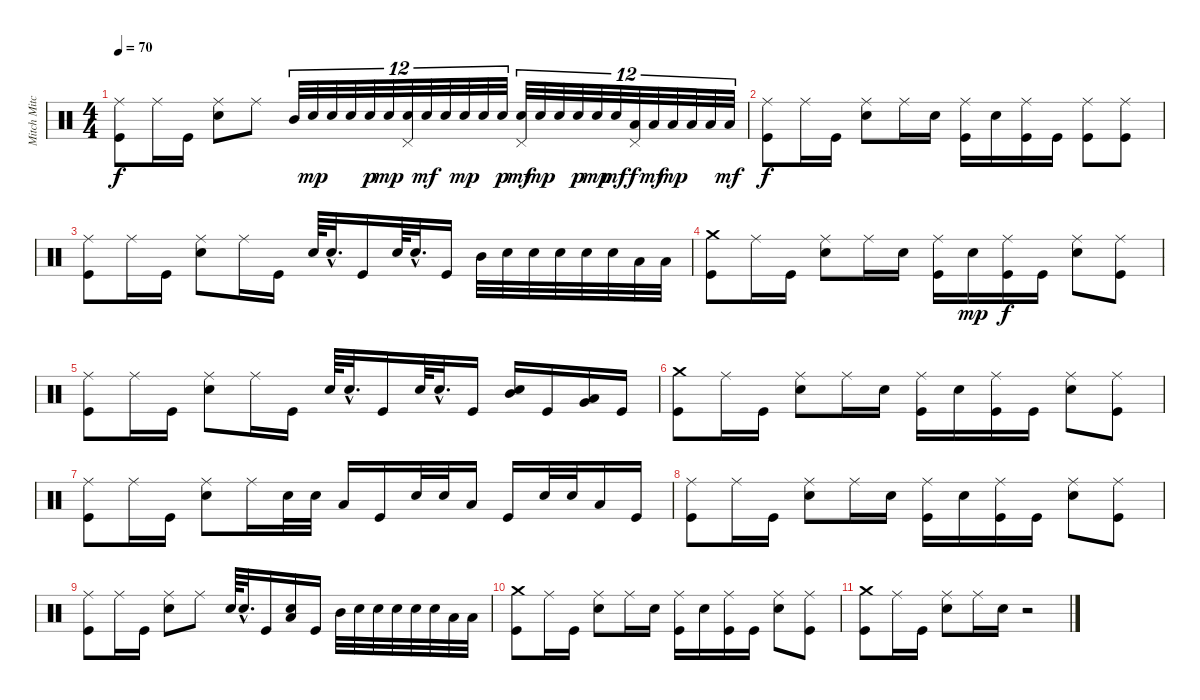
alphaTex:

\track ("Mitch Mitchell" "Mitch Mitc") {instrument percussion}
\staff {score}
\articulation defaults
\ts (4 4)
\tempo 70
\clef neutral
\ks c
("Ride (middle)" "Kick (hit)").8{dy f} "Ride (middle)".16 "Kick (hit)".16 ("Ride (middle)" "Electric Snare (hit)").8 "Ride (middle)".8 "Mid Tom (hit)".32{tu (12 8)} "Electric Snare (hit)".32{tu (12 8) dy mp} "Electric Snare (hit)".32{tu (12 8)} "Electric Snare (hit)".32{tu (12 8)} "Electric Snare (hit)".32{tu (12 8) dy p} "Electric Snare (hit)".32{tu (12 8) dy mp} ("Pedal Hi-Hat (hit)" "Electric Snare (hit)").32{tu (12 8)} "Electric Snare (hit)".32{tu (12 8) dy mf} "Electric Snare (hit)".32{tu (12 8)} "Electric Snare (hit)".32{tu (12 8) dy mp} "Electric Snare (hit)".32{tu (12 8)} "Electric Snare (hit)".32{tu (12 8) dy p} ("Pedal Hi-Hat (hit)" "Electric Snare (hit)").32{tu (12 8) dy mf} "Electric Snare (hit)".32{tu (12 8) dy mp} "Electric Snare (hit)".32{tu (12 8)} "Electric Snare (hit)".32{tu (12 8) dy p} "Electric Snare (hit)".32{tu (12 8) dy mp} "Electric Snare (hit)".32{tu (12 8) dy mf} ("Pedal Hi-Hat (hit)" "Low Tom (hit)").32{tu (12 8) dy f} "Low Tom (hit)".32{tu (12 8) dy mf} "Low Tom (hit)".32{tu (12 8) dy mp} "Low Tom (hit)".32{tu (12 8)} "Low Tom (hit)".32{tu (12 8)} "Low Tom (hit)".32{tu (12 8) dy mf} |
("Ride (middle)" "Kick (hit)").8{dy f} "Ride (middle)".16 "Kick (hit)".16 ("Ride (middle)" "Electric Snare (hit)").8 "Ride (middle)".16 "Electric Snare (hit)".16 ("Ride (middle)" "Kick (hit)").16 "Electric Snare (hit)".16 ("Ride (middle)" "Kick (hit)").16 "Kick (hit)".16 ("Ride (middle)" "Kick (hit)").8 ("Ride (middle)" "Kick (hit)").8 |
("Ride (middle)" "Kick (hit)").8 "Ride (middle)".16 "Kick (hit)".16 ("Ride (middle)" "Electric Snare (hit)").8 "Ride (middle)".16 "Kick (hit)".16 "Electric Snare (hit)".64 "Electric Snare (hit)"{hac}.32{d} "Kick (hit)".16 "Electric Snare (hit)".64 "Electric Snare (hit)"{hac}.32{d} "Kick (hit)".16 "Mid Tom (hit)".32 "Electric Snare (hit)".32 "Electric Snare (hit)".32 "Electric Snare (hit)".32 "Electric Snare (hit)".32 "Electric Snare (hit)".32 "Low Tom (hit)".32 "Low Tom (hit)".32 |
("Crash medium (hit)" "Kick (hit)").8 "Ride (middle)".16 "Kick (hit)".16 ("Ride (middle)" "Electric Snare (hit)").8 "Ride (middle)".16 "Electric Snare (hit)".16 ("Ride (middle)" "Kick (hit)").16 "Electric Snare (hit)".16{dy mp} ("Ride (middle)" "Kick (hit)").16{dy f} "Kick (hit)".16 ("Ride (middle)" "Electric Snare (hit)").8 ("Ride (middle)" "Kick (hit)").8 |
("Ride (middle)" "Kick (hit)").8 "Ride (middle)".16 "Kick (hit)".16 ("Ride (middle)" "Electric Snare (hit)").8 "Ride (middle)".16 "Kick (hit)".16 "Electric Snare (hit)".64 "Electric Snare (hit)"{hac}.32{d} "Kick (hit)".16 "Electric Snare (hit)".64 "Electric Snare (hit)"{hac}.32{d} "Kick (hit)".16 ("Mid Tom (hit)" "Electric Snare (hit)").16 "Kick (hit)".16 ("Low Tom (hit)" "Very Low Tom (hit)").16 "Kick (hit)".16 |
("Crash medium (hit)" "Kick (hit)").8 "Ride (middle)".16 "Kick (hit)".16 ("Ride (middle)" "Electric Snare (hit)").8 "Ride (middle)".16 "Electric Snare (hit)".16 ("Ride (middle)" "Kick (hit)").16 "Electric Snare (hit)".16 ("Ride (middle)" "Kick (hit)").16 "Kick (hit)".16 ("Ride (middle)" "Electric Snare (hit)").8 ("Ride (middle)" "Kick (hit)").8 |
("Ride (middle)" "Kick (hit)").8 "Ride (middle)".16 "Kick (hit)".16 ("Ride (middle)" "Electric Snare (hit)").8 "Ride (middle)".16 "Electric Snare (hit)".32 "Electric Snare (hit)".32 "Low Tom (hit)".16 "Kick (hit)".16 "Electric Snare (hit)".32 "Electric Snare (hit)".32 "Low Tom (hit)".16 "Kick (hit)".16 "Electric Snare (hit)".32 "Electric Snare (hit)".32 "Low Tom (hit)".16 "Kick (hit)".16 |
("Ride (middle)" "Kick (hit)").8 "Ride (middle)".16 "Kick (hit)".16 ("Ride (middle)" "Electric Snare (hit)").8 "Ride (middle)".16 "Electric Snare (hit)".16 ("Ride (middle)" "Kick (hit)").16 "Electric Snare (hit)".16 ("Ride (middle)" "Kick (hit)").16 "Kick (hit)".16 ("Ride (middle)" "Electric Snare (hit)").8 ("Ride (middle)" "Kick (hit)").8 |
("Ride (middle)" "Kick (hit)").8 "Ride (middle)".16 "Kick (hit)".16 ("Ride (middle)" "Electric Snare (hit)").8 "Ride (middle)".8 "Electric Snare (hit)".64 "Electric Snare (hit)"{hac}.32{d} "Kick (hit)".16 ("Electric Snare (hit)" "Low Tom (hit)").16 "Kick (hit)".16 "Mid Tom (hit)".32 "Electric Snare (hit)".32 "Electric Snare (hit)".32 "Electric Snare (hit)".32 "Electric Snare (hit)".32 "Electric Snare (hit)".32 "Low Tom (hit)".32 "Low Tom (hit)".32 |
("Crash medium (hit)" "Kick (hit)").8{volume 1} "Ride (middle)".16 "Kick (hit)".16 ("Ride (middle)" "Electric Snare (hit)").8 "Ride (middle)".16 "Electric Snare (hit)".16 ("Ride (middle)" "Kick (hit)").16 "Electric Snare (hit)".16 ("Ride (middle)" "Kick (hit)").16 "Kick (hit)".16 ("Ride (middle)" "Electric Snare (hit)").8 ("Ride (middle)" "Kick (hit)").8 |
("Crash medium (hit)" "Kick (hit)").8 "Ride (middle)".16 "Kick (hit)".16 ("Ride (middle)" "Electric Snare (hit)").8 "Ride (middle)".16 "Electric Snare (hit)".16 r.2
